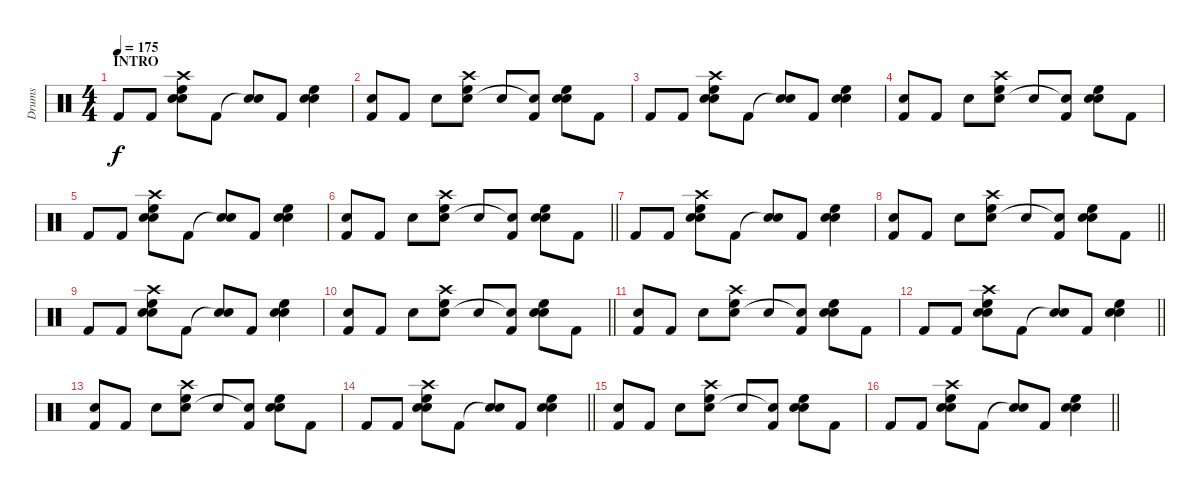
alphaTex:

\track ("Drums" "Drums") {instrument percussion}
\staff {score}
\articulation defaults
\ts (4 4)
\section ("" "INTRO")
\tempo 175
\clef neutral
\ks c "Kick (hit) 2".8{dy f} "Kick (hit) 2".8
("High Floor Tom (hit)" "Electric Snare (hit)" "Crash high (hit)" "Metronome (bell)").8 "Kick (hit) 2".8 ("Snare (hit)"{t} "Metronome (bell)").8 "Kick (hit) 2".8 ("High Floor Tom (hit)" "Electric Snare (hit)" "Metronome (bell)").4 |
("Kick (hit) 2" "Metronome (bell)").8 "Kick (hit) 2".8 "Metronome (bell)".8 ("High Floor Tom (hit)" "Electric Snare (hit)" "Crash high (hit)").8 "Metronome (bell)".8 ("Kick (hit) 2" "Snare (hit)"{t}).8 ("High Floor Tom (hit)" "Electric Snare (hit)" "Metronome (bell)").8 "Kick (hit) 2".8 |
"Kick (hit) 2".8 "Kick (hit) 2".8 ("High Floor Tom (hit)" "Electric Snare (hit)" "Crash high (hit)" "Metronome (bell)").8 "Kick (hit) 2".8 ("Snare (hit)"{t} "Metronome (bell)").8 "Kick (hit) 2".8 ("High Floor Tom (hit)" "Electric Snare (hit)" "Metronome (bell)").4 |
("Kick (hit) 2" "Metronome (bell)").8 "Kick (hit) 2".8 "Metronome (bell)".8 ("High Floor Tom (hit)" "Electric Snare (hit)" "Crash high (hit)").8 "Metronome (bell)".8 ("Kick (hit) 2" "Snare (hit)"{t}).8 ("High Floor Tom (hit)" "Electric Snare (hit)" "Metronome (bell)").8 "Kick (hit) 2".8 |
"Kick (hit) 2".8 "Kick (hit) 2".8 ("High Floor Tom (hit)" "Electric Snare (hit)" "Crash high (hit)" "Metronome (bell)").8 "Kick (hit) 2".8 ("Snare (hit)"{t} "Metronome (bell)").8 "Kick (hit) 2".8 ("High Floor Tom (hit)" "Electric Snare (hit)" "Metronome (bell)").4 |
\barLineRight lightlight
("Kick (hit) 2" "Metronome (bell)").8 "Kick (hit) 2".8 "Metronome (bell)".8 ("High Floor Tom (hit)" "Electric Snare (hit)" "Crash high (hit)").8 "Metronome (bell)".8 ("Kick (hit) 2" "Snare (hit)"{t}).8 ("High Floor Tom (hit)" "Electric Snare (hit)" "Metronome (bell)").8 "Kick (hit) 2".8 |
"Kick (hit) 2".8 "Kick (hit) 2".8 ("High Floor Tom (hit)" "Electric Snare (hit)" "Crash high (hit)" "Metronome (bell)").8 "Kick (hit) 2".8 ("Snare (hit)"{t} "Metronome (bell)").8 "Kick (hit) 2".8 ("High Floor Tom (hit)" "Electric Snare (hit)" "Metronome (bell)").4 |
\barLineRight lightlight
("Kick (hit) 2" "Metronome (bell)").8 "Kick (hit) 2".8 "Metronome (bell)".8 ("High Floor Tom (hit)" "Electric Snare (hit)" "Crash high (hit)").8 "Metronome (bell)".8 ("Kick (hit) 2" "Snare (hit)"{t}).8 ("High Floor Tom (hit)" "Electric Snare (hit)" "Metronome (bell)").8 "Kick (hit) 2".8 |
"Kick (hit) 2".8 "Kick (hit) 2".8 ("High Floor Tom (hit)" "Electric Snare (hit)" "Crash high (hit)" "Metronome (bell)").8 "Kick (hit) 2".8 ("Snare (hit)"{t} "Metronome (bell)").8 "Kick (hit) 2".8 ("High Floor Tom (hit)" "Electric Snare (hit)" "Metronome (bell)").4 |
\barLineRight lightlight
("Kick (hit) 2" "Metronome (bell)").8 "Kick (hit) 2".8 "Metronome (bell)".8 ("High Floor Tom (hit)" "Electric Snare (hit)" "Crash high (hit)").8 "Metronome (bell)".8 ("Kick (hit) 2" "Snare (hit)"{t}).8 ("High Floor Tom (hit)" "Electric Snare (hit)" "Metronome (bell)").8 "Kick (hit) 2".8 |
("Kick (hit) 2" "Metronome (bell)").8 "Kick (hit) 2".8 "Metronome (bell)".8 ("High Floor Tom (hit)" "Electric Snare (hit)" "Crash high (hit)").8 "Metronome (bell)".8 ("Kick (hit) 2" "Snare (hit)"{t}).8 ("High Floor Tom (hit)" "Electric Snare (hit)" "Metronome (bell)").8 "Kick (hit) 2".8 |
\barLineRight lightlight "Kick (hit) 2".8 "Kick (hit) 2".8
("High Floor Tom (hit)" "Electric Snare (hit)" "Crash high (hit)" "Metronome (bell)").8 "Kick (hit) 2".8 ("Snare (hit)"{t} "Metronome (bell)").8 "Kick (hit) 2".8 ("High Floor Tom (hit)" "Electric Snare (hit)" "Metronome (bell)").4 |
("Kick (hit) 2" "Metronome (bell)").8 "Kick (hit) 2".8 "Metronome (bell)".8 ("High Floor Tom (hit)" "Electric Snare (hit)" "Crash high (hit)").8 "Metronome (bell)".8 ("Kick (hit) 2" "Snare (hit)"{t}).8 ("High Floor Tom (hit)" "Electric Snare (hit)" "Metronome (bell)").8 "Kick (hit) 2".8 |
\barLineRight lightlight "Kick (hit) 2".8 "Kick (hit) 2".8
("High Floor Tom (hit)" "Electric Snare (hit)" "Crash high (hit)" "Metronome (bell)").8 "Kick (hit) 2".8 ("Snare (hit)"{t} "Metronome (bell)").8 "Kick (hit) 2".8 ("High Floor Tom (hit)" "Electric Snare (hit)" "Metronome (bell)").4 |
("Kick (hit) 2" "Metronome (bell)").8 "Kick (hit) 2".8 "Metronome (bell)".8 ("High Floor Tom (hit)" "Electric Snare (hit)" "Crash high (hit)").8 "Metronome (bell)".8 ("Kick (hit) 2" "Snare (hit)"{t}).8 ("High Floor Tom (hit)" "Electric Snare (hit)" "Metronome (bell)").8 "Kick (hit) 2".8 |
\barLineRight lightlight "Kick (hit) 2".8 "Kick (hit) 2".8
("High Floor Tom (hit)" "Electric Snare (hit)" "Crash high (hit)" "Metronome (bell)").8 "Kick (hit) 2".8 ("Snare (hit)"{t} "Metronome (bell)").8 "Kick (hit) 2".8 ("High Floor Tom (hit)" "Electric Snare (hit)" "Metronome (bell)").4
